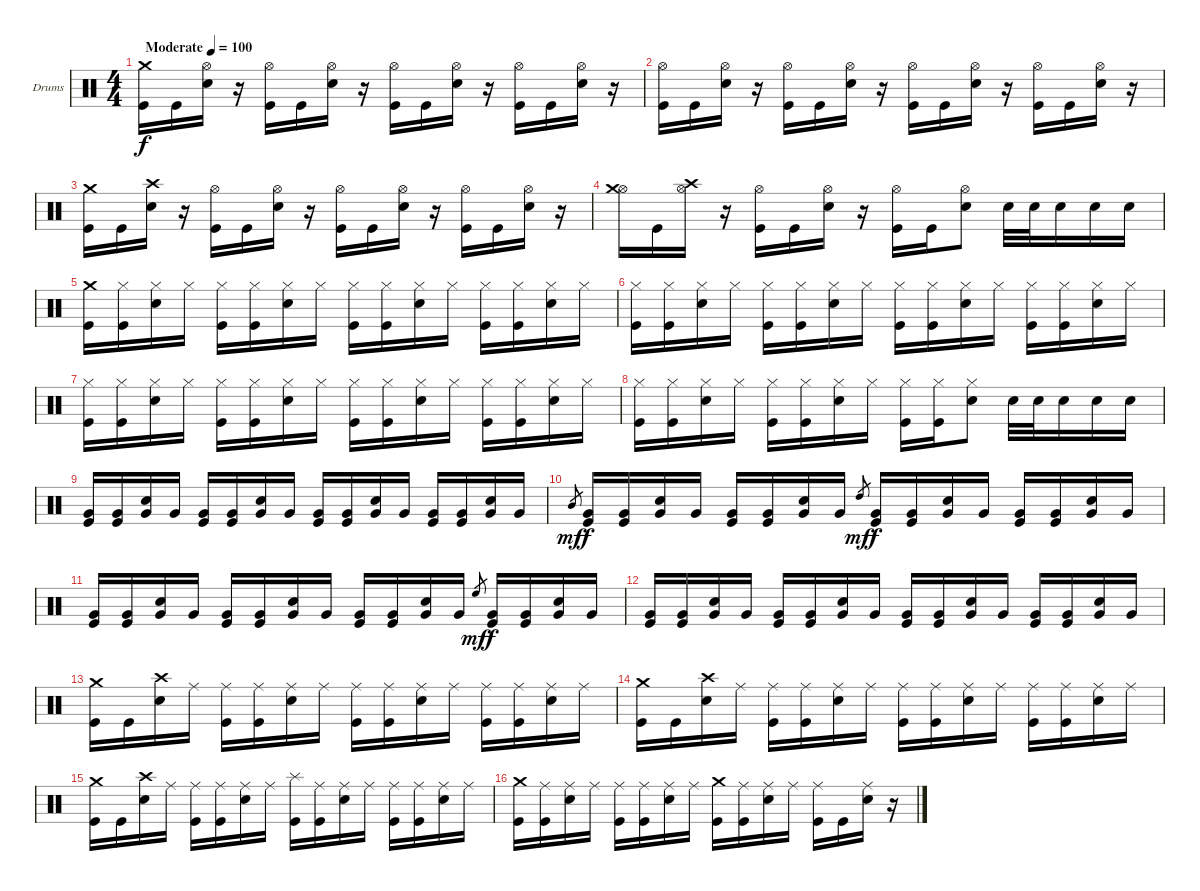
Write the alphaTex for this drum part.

\bracketExtendMode groupsimilarinstruments
\firstSystemTrackNameOrientation horizontal
\otherSystemsTrackNameOrientation horizontal
\track ("Drumkit" "Drums") {instrument percussion}
\staff {score}
\articulation defaults
\ts (4 4)
\beaming (8 2 2 2 2)
\tempo (100 "Moderate")
\clef neutral
\ks c
("Crash medium (hit)" "Kick (hit)").16{dy f} "Kick (hit)".16 ("Hi-Hat (open)" "Snare (hit) 2").16 r.16 ("Hi-Hat (open)" "Kick (hit)").16 "Kick (hit)".16 ("Hi-Hat (open)" "Snare (hit) 2").16 r.16 ("Hi-Hat (open)" "Kick (hit)").16 "Kick (hit)".16 ("Hi-Hat (open)" "Snare (hit) 2").16 r.16 ("Hi-Hat (open)" "Kick (hit)").16 "Kick (hit)".16 ("Hi-Hat (open)" "Snare (hit) 2").16 r.16 |
("Hi-Hat (open)" "Kick (hit)").16 "Kick (hit)".16 ("Hi-Hat (open)" "Snare (hit) 2").16 r.16 ("Hi-Hat (open)" "Kick (hit)").16 "Kick (hit)".16 ("Hi-Hat (open)" "Snare (hit) 2").16 r.16 ("Hi-Hat (open)" "Kick (hit)").16 "Kick (hit)".16 ("Hi-Hat (open)" "Snare (hit) 2").16 r.16 ("Hi-Hat (open)" "Kick (hit)").16 "Kick (hit)".16 ("Hi-Hat (open)" "Snare (hit) 2").16 r.16 |
("Crash medium (hit)" "Kick (hit)").16 "Kick (hit)".16 ("Crash high (hit)" "Snare (hit) 2").16 r.16 ("Hi-Hat (open)" "Kick (hit)").16 "Kick (hit)".16 ("Hi-Hat (open)" "Snare (hit) 2").16 r.16 ("Hi-Hat (open)" "Kick (hit)").16 "Kick (hit)".16 ("Hi-Hat (open)" "Snare (hit) 2").16 r.16 ("Hi-Hat (open)" "Kick (hit)").16 "Kick (hit)".16 ("Hi-Hat (open)" "Snare (hit) 2").16 r.16 |
("Hi-Hat (open)" "Crash medium (hit)").16 "Kick (hit)".16 ("Hi-Hat (open)" "Crash high (hit)").16 r.16 ("Hi-Hat (open)" "Kick (hit)").16 "Kick (hit)".16 ("Hi-Hat (open)" "Snare (hit) 2").16 r.16 ("Hi-Hat (open)" "Kick (hit)").16 "Kick (hit)".16 ("Hi-Hat (open)" "Snare (hit) 2").8 "Snare (hit) 2".32 "Snare (hit) 2".32 "Snare (hit) 2".16 "Snare (hit) 2".16 "Snare (hit) 2".16 |
("Kick (hit)" "Crash medium (hit)").16 ("Kick (hit)" "Hi-Hat (closed)").16 ("Snare (hit) 2" "Hi-Hat (closed)").16 "Hi-Hat (closed)".16 ("Kick (hit)" "Hi-Hat (closed)").16 ("Kick (hit)" "Hi-Hat (closed)").16 ("Snare (hit) 2" "Hi-Hat (closed)").16 "Hi-Hat (closed)".16 ("Kick (hit)" "Hi-Hat (closed)").16 ("Kick (hit)" "Hi-Hat (closed)").16 ("Snare (hit) 2" "Hi-Hat (closed)").16 "Hi-Hat (closed)".16 ("Kick (hit)" "Hi-Hat (closed)").16 ("Kick (hit)" "Hi-Hat (closed)").16 ("Snare (hit) 2" "Hi-Hat (closed)").16 "Hi-Hat (closed)".16 |
("Kick (hit)" "Hi-Hat (closed)").16 ("Kick (hit)" "Hi-Hat (closed)").16 ("Snare (hit) 2" "Hi-Hat (closed)").16 "Hi-Hat (closed)".16 ("Kick (hit)" "Hi-Hat (closed)").16 ("Kick (hit)" "Hi-Hat (closed)").16 ("Snare (hit) 2" "Hi-Hat (closed)").16 "Hi-Hat (closed)".16 ("Kick (hit)" "Hi-Hat (closed)").16 ("Kick (hit)" "Hi-Hat (closed)").16 ("Snare (hit) 2" "Hi-Hat (closed)").16 "Hi-Hat (closed)".16 ("Kick (hit)" "Hi-Hat (closed)").16 ("Kick (hit)" "Hi-Hat (closed)").16 ("Snare (hit) 2" "Hi-Hat (closed)").16 "Hi-Hat (closed)".16 |
("Kick (hit)" "Hi-Hat (closed)").16 ("Kick (hit)" "Hi-Hat (closed)").16 ("Snare (hit) 2" "Hi-Hat (closed)").16 "Hi-Hat (closed)".16 ("Kick (hit)" "Hi-Hat (closed)").16 ("Kick (hit)" "Hi-Hat (closed)").16 ("Snare (hit) 2" "Hi-Hat (closed)").16 "Hi-Hat (closed)".16 ("Kick (hit)" "Hi-Hat (closed)").16 ("Kick (hit)" "Hi-Hat (closed)").16 ("Snare (hit) 2" "Hi-Hat (closed)").16 "Hi-Hat (closed)".16 ("Kick (hit)" "Hi-Hat (closed)").16 ("Kick (hit)" "Hi-Hat (closed)").16 ("Snare (hit) 2" "Hi-Hat (closed)").16 "Hi-Hat (closed)".16 |
("Kick (hit)" "Hi-Hat (closed)").16 ("Kick (hit)" "Hi-Hat (closed)").16 ("Snare (hit) 2" "Hi-Hat (closed)").16 "Hi-Hat (closed)".16 ("Kick (hit)" "Hi-Hat (closed)").16 ("Kick (hit)" "Hi-Hat (closed)").16 ("Snare (hit) 2" "Hi-Hat (closed)").16 "Hi-Hat (closed)".16 ("Kick (hit)" "Hi-Hat (closed)").16 ("Kick (hit)" "Hi-Hat (closed)").16 ("Snare (hit) 2" "Hi-Hat (closed)").8 "Snare (hit) 2".32 "Snare (hit) 2".32 "Snare (hit) 2".16 "Snare (hit) 2".16 "Snare (hit) 2".16 |
("Kick (hit)" "Very Low Tom (hit)").16 ("Kick (hit)" "Very Low Tom (hit)").16 ("Snare (hit) 2" "Very Low Tom (hit)").16 "Very Low Tom (hit)".16 ("Kick (hit)" "Very Low Tom (hit)").16 ("Kick (hit)" "Very Low Tom (hit)").16 ("Snare (hit) 2" "Very Low Tom (hit)").16 "Very Low Tom (hit)".16 ("Kick (hit)" "Very Low Tom (hit)").16 ("Kick (hit)" "Very Low Tom (hit)").16 ("Snare (hit) 2" "Very Low Tom (hit)").16 "Very Low Tom (hit)".16 ("Kick (hit)" "Very Low Tom (hit)").16 ("Kick (hit)" "Very Low Tom (hit)").16 ("Snare (hit) 2" "Very Low Tom (hit)").16 "Very Low Tom (hit)".16 |
"Mid Tom (hit)".8{gr dy mf} ("Kick (hit)" "Very Low Tom (hit)").16{dy f} ("Kick (hit)" "Very Low Tom (hit)").16 ("Snare (hit) 2" "Very Low Tom (hit)").16 "Very Low Tom (hit)".16 ("Kick (hit)" "Very Low Tom (hit)").16 ("Kick (hit)" "Very Low Tom (hit)").16 ("Snare (hit) 2" "Very Low Tom (hit)").16 "Very Low Tom (hit)".16 "High Tom (hit)".8{gr dy mf} ("Kick (hit)" "Very Low Tom (hit)").16{dy f} ("Kick (hit)" "Very Low Tom (hit)").16 ("Snare (hit) 2" "Very Low Tom (hit)").16 "Very Low Tom (hit)".16 ("Kick (hit)" "Very Low Tom (hit)").16 ("Kick (hit)" "Very Low Tom (hit)").16 ("Snare (hit) 2" "Very Low Tom (hit)").16 "Very Low Tom (hit)".16 |
("Kick (hit)" "Very Low Tom (hit)").16 ("Kick (hit)" "Very Low Tom (hit)").16 ("Snare (hit) 2" "Very Low Tom (hit)").16 "Very Low Tom (hit)".16 ("Kick (hit)" "Very Low Tom (hit)").16 ("Kick (hit)" "Very Low Tom (hit)").16 ("Snare (hit) 2" "Very Low Tom (hit)").16 "Very Low Tom (hit)".16 ("Kick (hit)" "Very Low Tom (hit)").16 ("Kick (hit)" "Very Low Tom (hit)").16 ("Snare (hit) 2" "Very Low Tom (hit)").16 "Very Low Tom (hit)".16 "High Floor Tom (hit)".8{gr dy mf} ("Kick (hit)" "Very Low Tom (hit)").16{dy f} ("Kick (hit)" "Very Low Tom (hit)").16 ("Snare (hit) 2" "Very Low Tom (hit)").16 "Very Low Tom (hit)".16 |
("Kick (hit)" "Very Low Tom (hit)").16 ("Kick (hit)" "Very Low Tom (hit)").16 ("Snare (hit) 2" "Very Low Tom (hit)").16 "Very Low Tom (hit)".16 ("Kick (hit)" "Very Low Tom (hit)").16 ("Kick (hit)" "Very Low Tom (hit)").16 ("Snare (hit) 2" "Very Low Tom (hit)").16 "Very Low Tom (hit)".16 ("Kick (hit)" "Very Low Tom (hit)").16 ("Kick (hit)" "Very Low Tom (hit)").16 ("Snare (hit) 2" "Very Low Tom (hit)").16 "Very Low Tom (hit)".16 ("Kick (hit)" "Very Low Tom (hit)").16 ("Kick (hit)" "Very Low Tom (hit)").16 ("Snare (hit) 2" "Very Low Tom (hit)").16 "Very Low Tom (hit)".16 |
("Crash medium (hit)" "Kick (hit)").16 "Kick (hit)".16 ("Crash high (hit)" "Snare (hit) 2").16 "Ride (middle)".16 ("Ride (middle)" "Kick (hit)").16 ("Ride (middle)" "Kick (hit)").16 ("Ride (middle)" "Snare (hit) 2").16 "Ride (middle)".16 ("Ride (middle)" "Kick (hit)").16 ("Ride (middle)" "Kick (hit)").16 ("Ride (middle)" "Snare (hit) 2").16 "Ride (middle)".16 ("Ride (middle)" "Kick (hit)").16 ("Ride (middle)" "Kick (hit)").16 ("Ride (middle)" "Snare (hit) 2").16 "Ride (middle)".16 |
("Crash medium (hit)" "Kick (hit)").16 "Kick (hit)".16 ("Crash high (hit)" "Snare (hit) 2").16 "Ride (middle)".16 ("Ride (middle)" "Kick (hit)").16 ("Ride (middle)" "Kick (hit)").16 ("Ride (middle)" "Snare (hit) 2").16 "Ride (middle)".16 ("Ride (middle)" "Kick (hit)").16 ("Ride (middle)" "Kick (hit)").16 ("Ride (middle)" "Snare (hit) 2").16 "Ride (middle)".16 ("Ride (middle)" "Kick (hit)").16 ("Ride (middle)" "Kick (hit)").16 ("Ride (middle)" "Snare (hit) 2").16 "Ride (middle)".16 |
("Crash medium (hit)" "Kick (hit)").16 "Kick (hit)".16 ("Crash high (hit)" "Snare (hit) 2").16 "Ride (middle)".16 ("Ride (middle)" "Kick (hit)").16 ("Ride (middle)" "Kick (hit)").16 ("Ride (middle)" "Snare (hit) 2").16 "Ride (middle)".16 ("Splash (hit)" "Kick (hit)").16 ("Ride (middle)" "Kick (hit)").16 ("Ride (middle)" "Snare (hit) 2").16 "Ride (middle)".16 ("Ride (middle)" "Kick (hit)").16 ("Ride (middle)" "Kick (hit)").16 ("Ride (middle)" "Snare (hit) 2").16 "Ride (middle)".16 |
("Crash medium (hit)" "Kick (hit)").16 ("Ride (middle)" "Kick (hit)").16 ("Ride (middle)" "Snare (hit) 2").16 "Ride (middle)".16 ("Ride (middle)" "Kick (hit)").16 ("Ride (middle)" "Kick (hit)").16 ("Ride (middle)" "Snare (hit) 2").16 "Ride (middle)".16 ("Crash medium (hit)" "Kick (hit)").16 ("Ride (middle)" "Kick (hit)").16 ("Ride (middle)" "Snare (hit) 2").16 "Ride (middle)".16 ("Ride (middle)" "Kick (hit)").16 "Kick (hit)".16 ("Ride (middle)" "Snare (hit) 2").16 r.16
